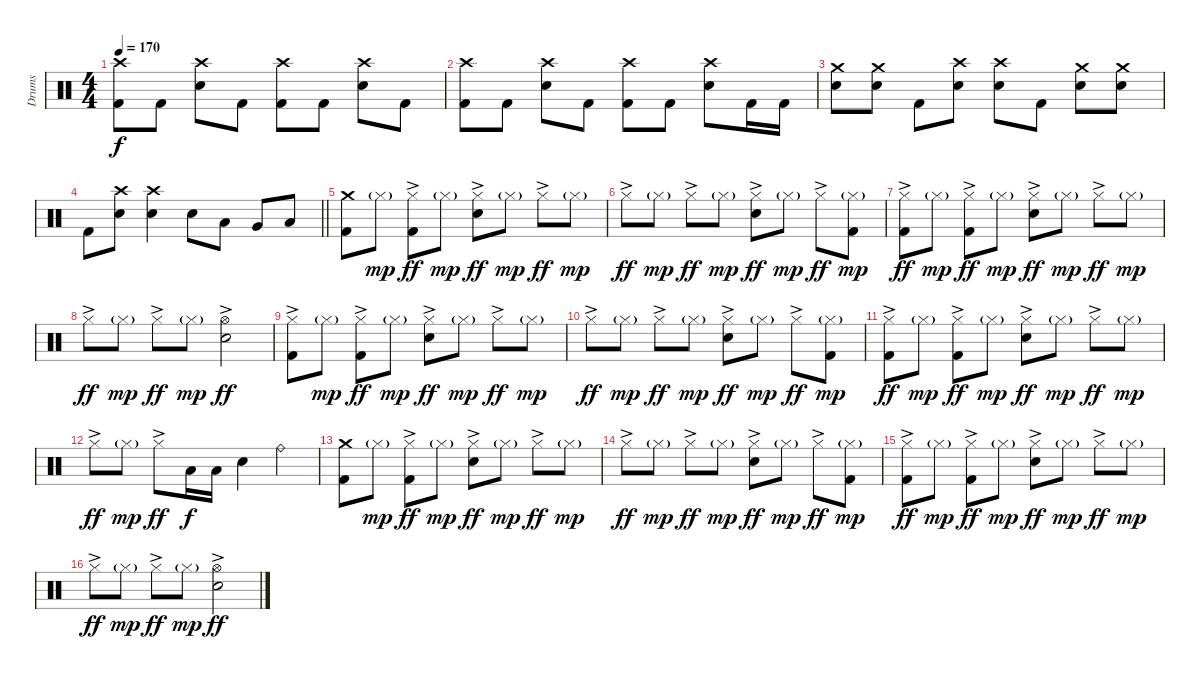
\track ("Drums" "Drums") {instrument percussion}
\staff {score}
\articulation defaults
\ts (4 4)
\tempo 170
\clef neutral
\ks c
("Crash high (hit)" "Kick (hit) 2").8{dy f} "Kick (hit) 2".8 ("Crash high (hit)" "Snare (hit) 2").8 "Kick (hit) 2".8 ("Crash high (hit)" "Kick (hit) 2").8 "Kick (hit) 2".8 ("Crash high (hit)" "Snare (hit) 2").8 "Kick (hit) 2".8 |
("Crash high (hit)" "Kick (hit) 2").8 "Kick (hit) 2".8 ("Crash high (hit)" "Snare (hit) 2").8 "Kick (hit) 2".8 ("Crash high (hit)" "Kick (hit) 2").8 "Kick (hit) 2".8 ("Crash high (hit)" "Snare (hit) 2").8 "Kick (hit) 2".16 "Kick (hit) 2".16 |
("Crash medium (hit)" "Snare (hit) 2").8 ("Crash medium (hit)" "Snare (hit) 2").8 "Kick (hit) 2".8 ("Crash high (hit)" "Snare (hit) 2").8 ("Crash high (hit)" "Snare (hit) 2").8 "Kick (hit) 2".8 ("Crash medium (hit)" "Snare (hit) 2").8 ("Crash medium (hit)" "Snare (hit) 2").8 |
\barLineRight lightlight "Kick (hit) 2".8
("Crash high (hit)" "Snare (hit) 2").8 ("Crash high (hit)" "Snare (hit) 2").4 "Snare (hit) 2".8 "Low Tom (hit)".8 "Very Low Tom (hit)".8 "Low Floor Tom (hit)".8 |
("Crash medium (hit)" "Kick (hit) 2").8 "Hi-Hat (closed)"{g}.8{dy mp} ("Hi-Hat (closed)"{ac} "Kick (hit) 2").8{dy ff} "Hi-Hat (closed)"{g}.8{dy mp} ("Hi-Hat (closed)"{ac} "Snare (hit) 2").8{dy ff} "Hi-Hat (closed)"{g}.8{dy mp} "Hi-Hat (closed)"{ac}.8{dy ff} "Hi-Hat (closed)"{g}.8{dy mp} |
"Hi-Hat (closed)"{ac}.8{dy ff} "Hi-Hat (closed)"{g}.8{dy mp} "Hi-Hat (closed)"{ac}.8{dy ff} "Hi-Hat (closed)"{g}.8{dy mp} ("Hi-Hat (closed)"{ac} "Snare (hit) 2").8{dy ff} "Hi-Hat (closed)"{g}.8{dy mp} "Hi-Hat (closed)"{ac}.8{dy ff} ("Hi-Hat (closed)"{g} "Kick (hit) 2").8{dy mp} |
("Hi-Hat (closed)"{ac} "Kick (hit) 2").8{dy ff} "Hi-Hat (closed)"{g}.8{dy mp} ("Hi-Hat (closed)"{ac} "Kick (hit) 2").8{dy ff} "Hi-Hat (closed)"{g}.8{dy mp} ("Hi-Hat (closed)"{ac} "Snare (hit) 2").8{dy ff} "Hi-Hat (closed)"{g}.8{dy mp} "Hi-Hat (closed)"{ac}.8{dy ff} "Hi-Hat (closed)"{g}.8{dy mp} |
"Hi-Hat (closed)"{ac}.8{dy ff} "Hi-Hat (closed)"{g}.8{dy mp} "Hi-Hat (closed)"{ac}.8{dy ff} "Hi-Hat (closed)"{g}.8{dy mp} ("Hi-Hat (open)"{ac} "Snare (hit) 2").2{dy ff} |
("Hi-Hat (closed)"{ac} "Kick (hit) 2").8 "Hi-Hat (closed)"{g}.8{dy mp} ("Hi-Hat (closed)"{ac} "Kick (hit) 2").8{dy ff} "Hi-Hat (closed)"{g}.8{dy mp} ("Hi-Hat (closed)"{ac} "Snare (hit) 2").8{dy ff} "Hi-Hat (closed)"{g}.8{dy mp} "Hi-Hat (closed)"{ac}.8{dy ff} "Hi-Hat (closed)"{g}.8{dy mp} |
"Hi-Hat (closed)"{ac}.8{dy ff} "Hi-Hat (closed)"{g}.8{dy mp} "Hi-Hat (closed)"{ac}.8{dy ff} "Hi-Hat (closed)"{g}.8{dy mp} ("Hi-Hat (closed)"{ac} "Snare (hit) 2").8{dy ff} "Hi-Hat (closed)"{g}.8{dy mp} "Hi-Hat (closed)"{ac}.8{dy ff} ("Hi-Hat (closed)"{g} "Kick (hit) 2").8{dy mp} |
("Hi-Hat (closed)"{ac} "Kick (hit) 2").8{dy ff} "Hi-Hat (closed)"{g}.8{dy mp} ("Hi-Hat (closed)"{ac} "Kick (hit) 2").8{dy ff} "Hi-Hat (closed)"{g}.8{dy mp} ("Hi-Hat (closed)"{ac} "Snare (hit) 2").8{dy ff} "Hi-Hat (closed)"{g}.8{dy mp} "Hi-Hat (closed)"{ac}.8{dy ff} "Hi-Hat (closed)"{g}.8{dy mp} |
"Hi-Hat (closed)"{ac}.8{dy ff} "Hi-Hat (closed)"{g}.8{dy mp} "Hi-Hat (closed)"{ac}.8{dy ff} "Low Tom (hit)".16{dy f} "Low Tom (hit)".16 "Snare (hit) 2".4 "Ride (bell)".4 |
("Crash medium (hit)" "Kick (hit) 2").8 "Hi-Hat (closed)"{g}.8{dy mp} ("Hi-Hat (closed)"{ac} "Kick (hit) 2").8{dy ff} "Hi-Hat (closed)"{g}.8{dy mp} ("Hi-Hat (closed)"{ac} "Snare (hit) 2").8{dy ff} "Hi-Hat (closed)"{g}.8{dy mp} "Hi-Hat (closed)"{ac}.8{dy ff} "Hi-Hat (closed)"{g}.8{dy mp} |
"Hi-Hat (closed)"{ac}.8{dy ff} "Hi-Hat (closed)"{g}.8{dy mp} "Hi-Hat (closed)"{ac}.8{dy ff} "Hi-Hat (closed)"{g}.8{dy mp} ("Hi-Hat (closed)"{ac} "Snare (hit) 2").8{dy ff} "Hi-Hat (closed)"{g}.8{dy mp} "Hi-Hat (closed)"{ac}.8{dy ff} ("Hi-Hat (closed)"{g} "Kick (hit) 2").8{dy mp} |
("Hi-Hat (closed)"{ac} "Kick (hit) 2").8{dy ff} "Hi-Hat (closed)"{g}.8{dy mp} ("Hi-Hat (closed)"{ac} "Kick (hit) 2").8{dy ff} "Hi-Hat (closed)"{g}.8{dy mp} ("Hi-Hat (closed)"{ac} "Snare (hit) 2").8{dy ff} "Hi-Hat (closed)"{g}.8{dy mp} "Hi-Hat (closed)"{ac}.8{dy ff} "Hi-Hat (closed)"{g}.8{dy mp} |
"Hi-Hat (closed)"{ac}.8{dy ff} "Hi-Hat (closed)"{g}.8{dy mp} "Hi-Hat (closed)"{ac}.8{dy ff} "Hi-Hat (closed)"{g}.8{dy mp} ("Hi-Hat (open)"{ac} "Snare (hit) 2").2{dy ff}
